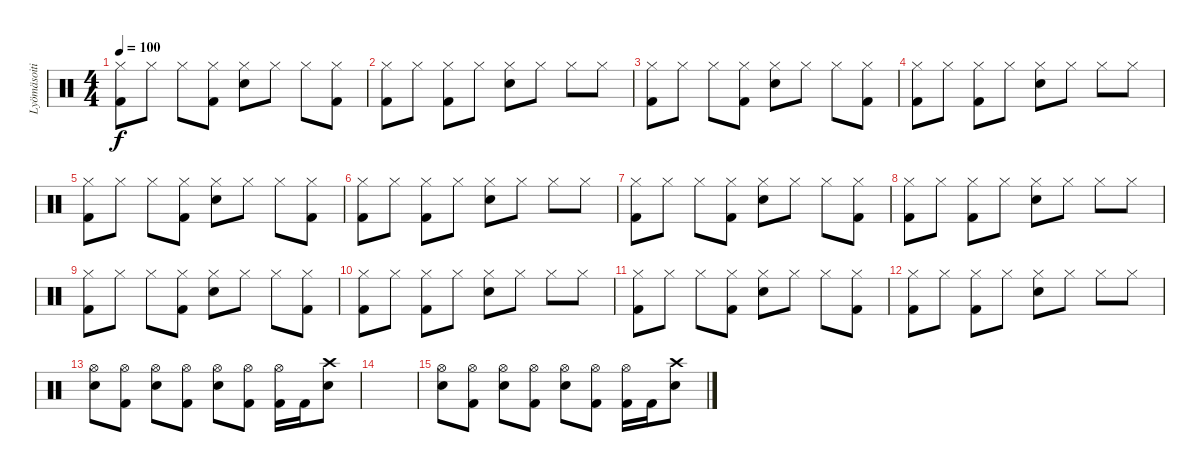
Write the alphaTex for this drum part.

\track ("Lyömäsoitin" "Lyömäsoiti") {instrument percussion}
\staff {score}
\articulation defaults
\ts (4 4)
\tempo 100
\clef neutral
\ks c
("Hi-Hat (closed)" "Kick (hit) 2").8{dy f} "Hi-Hat (closed)".8 "Hi-Hat (closed)".8 ("Hi-Hat (closed)" "Kick (hit) 2").8 ("Hi-Hat (closed)" "Snare (hit) 2").8 "Hi-Hat (closed)".8 "Hi-Hat (closed)".8 ("Hi-Hat (closed)" "Kick (hit) 2").8 |
("Hi-Hat (closed)" "Kick (hit) 2").8 "Hi-Hat (closed)".8 ("Hi-Hat (closed)" "Kick (hit) 2").8 "Hi-Hat (closed)".8 ("Hi-Hat (closed)" "Snare (hit) 2").8 "Hi-Hat (closed)".8 "Hi-Hat (closed)".8 "Hi-Hat (closed)".8 |
("Hi-Hat (closed)" "Kick (hit) 2").8 "Hi-Hat (closed)".8 "Hi-Hat (closed)".8 ("Hi-Hat (closed)" "Kick (hit) 2").8 ("Hi-Hat (closed)" "Snare (hit) 2").8 "Hi-Hat (closed)".8 "Hi-Hat (closed)".8 ("Hi-Hat (closed)" "Kick (hit) 2").8 |
("Hi-Hat (closed)" "Kick (hit) 2").8 "Hi-Hat (closed)".8 ("Hi-Hat (closed)" "Kick (hit) 2").8 "Hi-Hat (closed)".8 ("Hi-Hat (closed)" "Snare (hit) 2").8 "Hi-Hat (closed)".8 "Hi-Hat (closed)".8 "Hi-Hat (closed)".8 |
("Hi-Hat (closed)" "Kick (hit) 2").8 "Hi-Hat (closed)".8 "Hi-Hat (closed)".8 ("Hi-Hat (closed)" "Kick (hit) 2").8 ("Hi-Hat (closed)" "Snare (hit) 2").8 "Hi-Hat (closed)".8 "Hi-Hat (closed)".8 ("Hi-Hat (closed)" "Kick (hit) 2").8 |
("Hi-Hat (closed)" "Kick (hit) 2").8 "Hi-Hat (closed)".8 ("Hi-Hat (closed)" "Kick (hit) 2").8 "Hi-Hat (closed)".8 ("Hi-Hat (closed)" "Snare (hit) 2").8 "Hi-Hat (closed)".8 "Hi-Hat (closed)".8 "Hi-Hat (closed)".8 |
("Hi-Hat (closed)" "Kick (hit) 2").8 "Hi-Hat (closed)".8 "Hi-Hat (closed)".8 ("Hi-Hat (closed)" "Kick (hit) 2").8 ("Hi-Hat (closed)" "Snare (hit) 2").8 "Hi-Hat (closed)".8 "Hi-Hat (closed)".8 ("Hi-Hat (closed)" "Kick (hit) 2").8 |
("Hi-Hat (closed)" "Kick (hit) 2").8 "Hi-Hat (closed)".8 ("Hi-Hat (closed)" "Kick (hit) 2").8 "Hi-Hat (closed)".8 ("Hi-Hat (closed)" "Snare (hit) 2").8 "Hi-Hat (closed)".8 "Hi-Hat (closed)".8 "Hi-Hat (closed)".8 |
("Hi-Hat (closed)" "Kick (hit) 2").8 "Hi-Hat (closed)".8 "Hi-Hat (closed)".8 ("Hi-Hat (closed)" "Kick (hit) 2").8 ("Hi-Hat (closed)" "Snare (hit) 2").8 "Hi-Hat (closed)".8 "Hi-Hat (closed)".8 ("Hi-Hat (closed)" "Kick (hit) 2").8 |
("Hi-Hat (closed)" "Kick (hit) 2").8 "Hi-Hat (closed)".8 ("Hi-Hat (closed)" "Kick (hit) 2").8 "Hi-Hat (closed)".8 ("Hi-Hat (closed)" "Snare (hit) 2").8 "Hi-Hat (closed)".8 "Hi-Hat (closed)".8 "Hi-Hat (closed)".8 |
("Hi-Hat (closed)" "Kick (hit) 2").8 "Hi-Hat (closed)".8 "Hi-Hat (closed)".8 ("Hi-Hat (closed)" "Kick (hit) 2").8 ("Hi-Hat (closed)" "Snare (hit) 2").8 "Hi-Hat (closed)".8 "Hi-Hat (closed)".8 ("Hi-Hat (closed)" "Kick (hit) 2").8 |
("Hi-Hat (closed)" "Kick (hit) 2").8 "Hi-Hat (closed)".8 ("Hi-Hat (closed)" "Kick (hit) 2").8 "Hi-Hat (closed)".8 ("Hi-Hat (closed)" "Snare (hit) 2").8 "Hi-Hat (closed)".8 "Hi-Hat (closed)".8 "Hi-Hat (closed)".8 |
("Hi-Hat (open)" "Snare (hit) 2").8 ("Hi-Hat (open)" "Kick (hit) 2").8 ("Hi-Hat (open)" "Snare (hit) 2").8 ("Hi-Hat (open)" "Kick (hit) 2").8 ("Hi-Hat (open)" "Snare (hit) 2").8 ("Hi-Hat (open)" "Kick (hit) 2").8 ("Hi-Hat (open)" "Kick (hit) 2").16 "Kick (hit) 2".16 ("Crash high (hit)" "Snare (hit) 2").8 |
|
("Hi-Hat (open)" "Snare (hit) 2").8 ("Hi-Hat (open)" "Kick (hit) 2").8 ("Hi-Hat (open)" "Snare (hit) 2").8 ("Hi-Hat (open)" "Kick (hit) 2").8 ("Hi-Hat (open)" "Snare (hit) 2").8 ("Hi-Hat (open)" "Kick (hit) 2").8 ("Hi-Hat (open)" "Kick (hit) 2").16 "Kick (hit) 2".16 ("Crash high (hit)" "Snare (hit) 2").8
